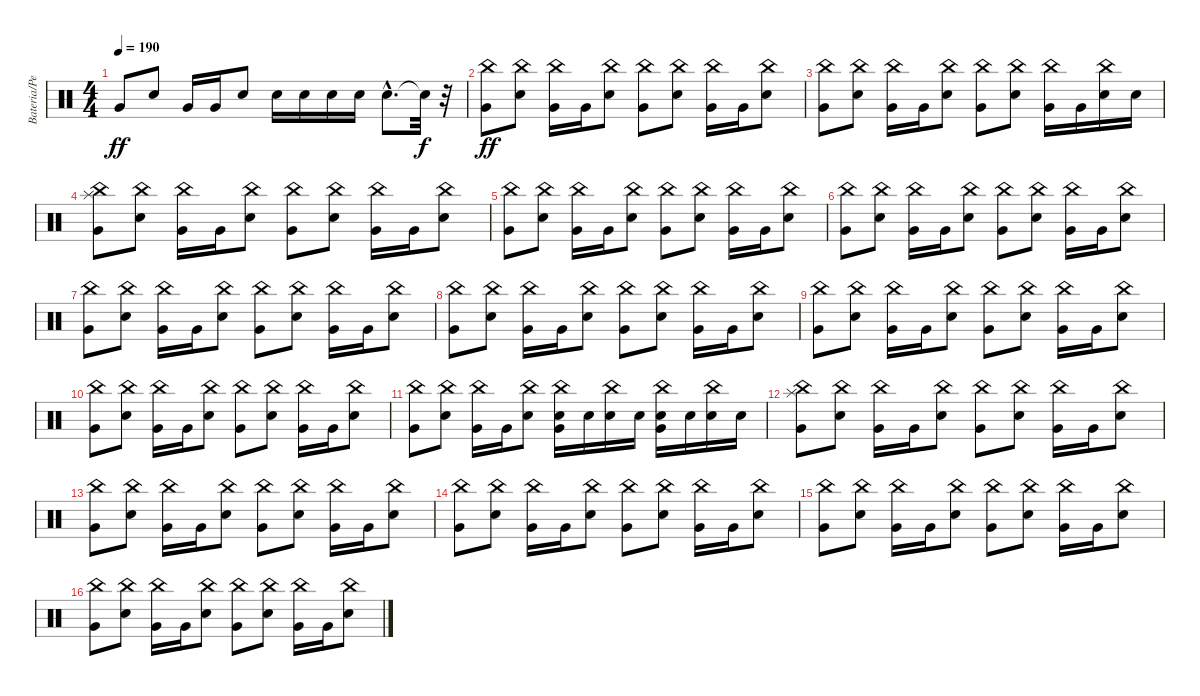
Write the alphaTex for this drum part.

\track ("Bateria/Percussion" "Bateria/Pe") {instrument percussion}
\staff {score}
\articulation defaults
\ts (4 4)
\tempo 190
\clef neutral
\ks c "Very Low Tom (hit)".8{dy ff} "Electric Snare (hit)".8 "Very Low Tom (hit)".16 "Very Low Tom (hit)".16 "Electric Snare (hit)".8 "Electric Snare (hit)".16 "Electric Snare (hit)".16 "Electric Snare (hit)".16 "Electric Snare (hit)".16 "Electric Snare (hit)"{hac}.8{d} "Snare (hit)"{t}.32{dy f}
r.32 |
("Very Low Tom (hit)" "China (hit)").8{dy ff} ("Electric Snare (hit)" "China (hit)").8 ("Very Low Tom (hit)" "China (hit)").16 "Very Low Tom (hit)".16 ("Electric Snare (hit)" "China (hit)").8 ("Very Low Tom (hit)" "China (hit)").8 ("Electric Snare (hit)" "China (hit)").8 ("Very Low Tom (hit)" "China (hit)").16 "Very Low Tom (hit)".16 ("Electric Snare (hit)" "China (hit)").8 |
("Very Low Tom (hit)" "China (hit)").8 ("Electric Snare (hit)" "China (hit)").8 ("Very Low Tom (hit)" "China (hit)").16 "Very Low Tom (hit)".16 ("Electric Snare (hit)" "China (hit)").8 ("Very Low Tom (hit)" "China (hit)").8 ("Electric Snare (hit)" "China (hit)").8 ("Very Low Tom (hit)" "China (hit)").16 "Very Low Tom (hit)".16 ("Electric Snare (hit)" "China (hit)").16 "Electric Snare (hit)".16 |
("Very Low Tom (hit)" "Splash (hit)" "China (hit)").8 ("Electric Snare (hit)" "China (hit)").8 ("Very Low Tom (hit)" "China (hit)").16 "Very Low Tom (hit)".16 ("Electric Snare (hit)" "China (hit)").8 ("Very Low Tom (hit)" "China (hit)").8 ("Electric Snare (hit)" "China (hit)").8 ("Very Low Tom (hit)" "China (hit)").16 "Very Low Tom (hit)".16 ("Electric Snare (hit)" "China (hit)").8 |
("Very Low Tom (hit)" "China (hit)").8 ("Electric Snare (hit)" "China (hit)").8 ("Very Low Tom (hit)" "China (hit)").16 "Very Low Tom (hit)".16 ("Electric Snare (hit)" "China (hit)").8 ("Very Low Tom (hit)" "China (hit)").8 ("Electric Snare (hit)" "China (hit)").8 ("Very Low Tom (hit)" "China (hit)").16 "Very Low Tom (hit)".16 ("Electric Snare (hit)" "China (hit)").8 |
("Very Low Tom (hit)" "China (hit)").8 ("Electric Snare (hit)" "China (hit)").8 ("Very Low Tom (hit)" "China (hit)").16 "Very Low Tom (hit)".16 ("Electric Snare (hit)" "China (hit)").8 ("Very Low Tom (hit)" "China (hit)").8 ("Electric Snare (hit)" "China (hit)").8 ("Very Low Tom (hit)" "China (hit)").16 "Very Low Tom (hit)".16 ("Electric Snare (hit)" "China (hit)").8 |
("Very Low Tom (hit)" "China (hit)").8 ("Electric Snare (hit)" "China (hit)").8 ("Very Low Tom (hit)" "China (hit)").16 "Very Low Tom (hit)".16 ("Electric Snare (hit)" "China (hit)").8 ("Very Low Tom (hit)" "China (hit)").8 ("Electric Snare (hit)" "China (hit)").8 ("Very Low Tom (hit)" "China (hit)").16 "Very Low Tom (hit)".16 ("Electric Snare (hit)" "China (hit)").8 |
("Very Low Tom (hit)" "China (hit)").8 ("Electric Snare (hit)" "China (hit)").8 ("Very Low Tom (hit)" "China (hit)").16 "Very Low Tom (hit)".16 ("Electric Snare (hit)" "China (hit)").8 ("Very Low Tom (hit)" "China (hit)").8 ("Electric Snare (hit)" "China (hit)").8 ("Very Low Tom (hit)" "China (hit)").16 "Very Low Tom (hit)".16 ("Electric Snare (hit)" "China (hit)").8 |
("Very Low Tom (hit)" "China (hit)").8 ("Electric Snare (hit)" "China (hit)").8 ("Very Low Tom (hit)" "China (hit)").16 "Very Low Tom (hit)".16 ("Electric Snare (hit)" "China (hit)").8 ("Very Low Tom (hit)" "China (hit)").8 ("Electric Snare (hit)" "China (hit)").8 ("Very Low Tom (hit)" "China (hit)").16 "Very Low Tom (hit)".16 ("Electric Snare (hit)" "China (hit)").8 |
("Very Low Tom (hit)" "China (hit)").8 ("Electric Snare (hit)" "China (hit)").8 ("Very Low Tom (hit)" "China (hit)").16 "Very Low Tom (hit)".16 ("Electric Snare (hit)" "China (hit)").8 ("Very Low Tom (hit)" "China (hit)").8 ("Electric Snare (hit)" "China (hit)").8 ("Very Low Tom (hit)" "China (hit)").16 "Very Low Tom (hit)".16 ("Electric Snare (hit)" "China (hit)").8 |
("Very Low Tom (hit)" "China (hit)").8 ("Electric Snare (hit)" "China (hit)").8 ("Very Low Tom (hit)" "China (hit)").16 "Very Low Tom (hit)".16 ("Electric Snare (hit)" "China (hit)").8 ("Snare (hit) 2" "Very Low Tom (hit)" "China (hit)").16 "Snare (hit) 2".16 ("Snare (hit) 2" "China (hit)").16 "Snare (hit) 2".16 ("Snare (hit) 2" "Very Low Tom (hit)" "China (hit)").16 "Snare (hit) 2".16 ("Snare (hit) 2" "China (hit)").16 "Snare (hit) 2".16 |
("Very Low Tom (hit)" "Splash (hit)" "China (hit)").8 ("Electric Snare (hit)" "China (hit)").8 ("Very Low Tom (hit)" "China (hit)").16 "Very Low Tom (hit)".16 ("Electric Snare (hit)" "China (hit)").8 ("Very Low Tom (hit)" "China (hit)").8 ("Electric Snare (hit)" "China (hit)").8 ("Very Low Tom (hit)" "China (hit)").16 "Very Low Tom (hit)".16 ("Electric Snare (hit)" "China (hit)").8 |
("Very Low Tom (hit)" "China (hit)").8 ("Electric Snare (hit)" "China (hit)").8 ("Very Low Tom (hit)" "China (hit)").16 "Very Low Tom (hit)".16 ("Electric Snare (hit)" "China (hit)").8 ("Very Low Tom (hit)" "China (hit)").8 ("Electric Snare (hit)" "China (hit)").8 ("Very Low Tom (hit)" "China (hit)").16 "Very Low Tom (hit)".16 ("Electric Snare (hit)" "China (hit)").8 |
("Very Low Tom (hit)" "China (hit)").8 ("Electric Snare (hit)" "China (hit)").8 ("Very Low Tom (hit)" "China (hit)").16 "Very Low Tom (hit)".16 ("Electric Snare (hit)" "China (hit)").8 ("Very Low Tom (hit)" "China (hit)").8 ("Electric Snare (hit)" "China (hit)").8 ("Very Low Tom (hit)" "China (hit)").16 "Very Low Tom (hit)".16 ("Electric Snare (hit)" "China (hit)").8 |
("Very Low Tom (hit)" "China (hit)").8 ("Electric Snare (hit)" "China (hit)").8 ("Very Low Tom (hit)" "China (hit)").16 "Very Low Tom (hit)".16 ("Electric Snare (hit)" "China (hit)").8 ("Very Low Tom (hit)" "China (hit)").8 ("Electric Snare (hit)" "China (hit)").8 ("Very Low Tom (hit)" "China (hit)").16 "Very Low Tom (hit)".16 ("Electric Snare (hit)" "China (hit)").8 |
("Very Low Tom (hit)" "China (hit)").8 ("Electric Snare (hit)" "China (hit)").8 ("Very Low Tom (hit)" "China (hit)").16 "Very Low Tom (hit)".16 ("Electric Snare (hit)" "China (hit)").8 ("Very Low Tom (hit)" "China (hit)").8 ("Electric Snare (hit)" "China (hit)").8 ("Very Low Tom (hit)" "China (hit)").16 "Very Low Tom (hit)".16 ("Electric Snare (hit)" "China (hit)").8
